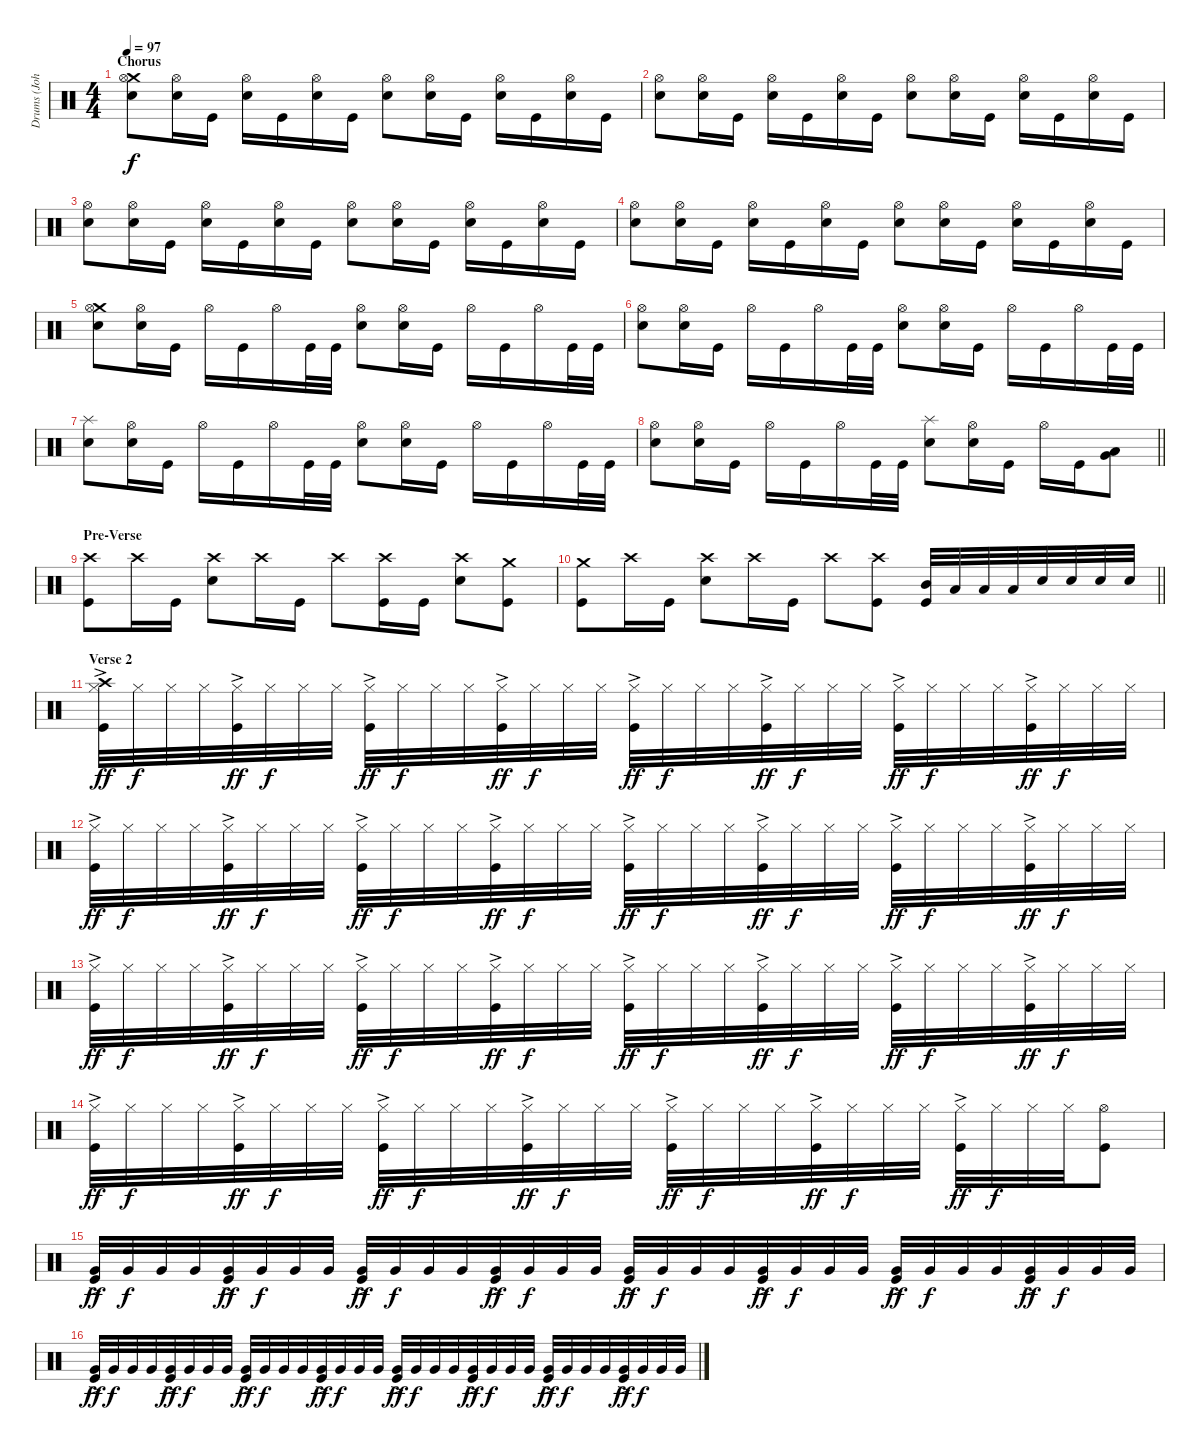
\track ("Drums (John Ensminger)" "Drums (Joh") {instrument percussion}
\staff {score}
\articulation defaults
\ts (4 4)
\section ("" "Chorus")
\tempo 97
\clef neutral
\ks c
("Crash medium (hit)" "Hi-Hat (open)" "Electric Snare (hit)").8{dy f} ("Hi-Hat (open)" "Electric Snare (hit)").16 "Kick (hit)".16 ("Hi-Hat (open)" "Electric Snare (hit)").16 "Kick (hit)".16 ("Hi-Hat (open)" "Electric Snare (hit)").16 "Kick (hit)".16 ("Hi-Hat (open)" "Electric Snare (hit)").8 ("Hi-Hat (open)" "Electric Snare (hit)").16 "Kick (hit)".16 ("Hi-Hat (open)" "Electric Snare (hit)").16 "Kick (hit)".16 ("Hi-Hat (open)" "Electric Snare (hit)").16 "Kick (hit)".16 |
("Hi-Hat (open)" "Electric Snare (hit)").8 ("Hi-Hat (open)" "Electric Snare (hit)").16 "Kick (hit)".16 ("Hi-Hat (open)" "Electric Snare (hit)").16 "Kick (hit)".16 ("Hi-Hat (open)" "Electric Snare (hit)").16 "Kick (hit)".16 ("Hi-Hat (open)" "Electric Snare (hit)").8 ("Hi-Hat (open)" "Electric Snare (hit)").16 "Kick (hit)".16 ("Hi-Hat (open)" "Electric Snare (hit)").16 "Kick (hit)".16 ("Hi-Hat (open)" "Electric Snare (hit)").16 "Kick (hit)".16 |
("Hi-Hat (open)" "Electric Snare (hit)").8 ("Hi-Hat (open)" "Electric Snare (hit)").16 "Kick (hit)".16 ("Hi-Hat (open)" "Electric Snare (hit)").16 "Kick (hit)".16 ("Hi-Hat (open)" "Electric Snare (hit)").16 "Kick (hit)".16 ("Hi-Hat (open)" "Electric Snare (hit)").8 ("Hi-Hat (open)" "Electric Snare (hit)").16 "Kick (hit)".16 ("Hi-Hat (open)" "Electric Snare (hit)").16 "Kick (hit)".16 ("Hi-Hat (open)" "Electric Snare (hit)").16 "Kick (hit)".16 |
("Hi-Hat (open)" "Electric Snare (hit)").8 ("Hi-Hat (open)" "Electric Snare (hit)").16 "Kick (hit)".16 ("Hi-Hat (open)" "Electric Snare (hit)").16 "Kick (hit)".16 ("Hi-Hat (open)" "Electric Snare (hit)").16 "Kick (hit)".16 ("Hi-Hat (open)" "Electric Snare (hit)").8 ("Hi-Hat (open)" "Electric Snare (hit)").16 "Kick (hit)".16 ("Hi-Hat (open)" "Electric Snare (hit)").16 "Kick (hit)".16 ("Hi-Hat (open)" "Electric Snare (hit)").16 "Kick (hit)".16 |
("Crash medium (hit)" "Hi-Hat (open)" "Electric Snare (hit)").8 ("Hi-Hat (open)" "Electric Snare (hit)").16 "Kick (hit)".16 "Hi-Hat (open)".16 "Kick (hit)".16 "Hi-Hat (open)".16 "Kick (hit)".32 "Kick (hit)".32 ("Hi-Hat (open)" "Electric Snare (hit)").8 ("Hi-Hat (open)" "Electric Snare (hit)").16 "Kick (hit)".16 "Hi-Hat (open)".16 "Kick (hit)".16 "Hi-Hat (open)".16 "Kick (hit)".32 "Kick (hit)".32 |
("Hi-Hat (open)" "Electric Snare (hit)").8 ("Hi-Hat (open)" "Electric Snare (hit)").16 "Kick (hit)".16 "Hi-Hat (open)".16 "Kick (hit)".16 "Hi-Hat (open)".16 "Kick (hit)".32 "Kick (hit)".32 ("Hi-Hat (open)" "Electric Snare (hit)").8 ("Hi-Hat (open)" "Electric Snare (hit)").16 "Kick (hit)".16 "Hi-Hat (open)".16 "Kick (hit)".16 "Hi-Hat (open)".16 "Kick (hit)".32 "Kick (hit)".32 |
("Splash (hit)" "Electric Snare (hit)").8 ("Hi-Hat (open)" "Electric Snare (hit)").16 "Kick (hit)".16 "Hi-Hat (open)".16 "Kick (hit)".16 "Hi-Hat (open)".16 "Kick (hit)".32 "Kick (hit)".32 ("Hi-Hat (open)" "Electric Snare (hit)").8 ("Hi-Hat (open)" "Electric Snare (hit)").16 "Kick (hit)".16 "Hi-Hat (open)".16 "Kick (hit)".16 "Hi-Hat (open)".16 "Kick (hit)".32 "Kick (hit)".32 |
\barLineRight lightlight
("Hi-Hat (open)" "Electric Snare (hit)").8 ("Hi-Hat (open)" "Electric Snare (hit)").16 "Kick (hit)".16 "Hi-Hat (open)".16 "Kick (hit)".16 "Hi-Hat (open)".16 "Kick (hit)".32 "Kick (hit)".32 ("Splash (hit)" "Electric Snare (hit)").8 ("Hi-Hat (open)" "Electric Snare (hit)").16 "Kick (hit)".16 "Hi-Hat (open)".16 "Kick (hit)".16 ("Low Tom (hit)" "Very Low Tom (hit)").8{bd 120} |
\section ("" "Pre-Verse")
("Crash high (hit)" "Kick (hit)").8 "Crash high (hit)".16 "Kick (hit)".16 ("Crash high (hit)" "Electric Snare (hit)").8 "Crash high (hit)".16 "Kick (hit)".16 "Crash high (hit)".8 ("Crash high (hit)" "Kick (hit)").16 "Kick (hit)".16 ("Crash high (hit)" "Electric Snare (hit)").8 ("Crash medium (hit)" "Kick (hit)").8 |
\barLineRight lightlight
("Crash medium (hit)" "Kick (hit)").8 "Crash high (hit)".16 "Kick (hit)".16 ("Crash high (hit)" "Electric Snare (hit)").8 "Crash high (hit)".16 "Kick (hit)".16 "Crash high (hit)".8 ("Crash high (hit)" "Kick (hit)").8 ("Mid Tom (hit)" "Kick (hit)").32 "Low Tom (hit)".32 "Low Tom (hit)".32 "Low Tom (hit)".32 "Electric Snare (hit)".32 "Electric Snare (hit)".32 "Electric Snare (hit)".32 "Electric Snare (hit)".32 |
\section ("" "Verse 2")
("Crash high (hit)" "Hi-Hat (closed)"{ac} "Kick (hit)").32{dy ff} "Hi-Hat (closed)".32{dy f} "Hi-Hat (closed)".32 "Hi-Hat (closed)".32 ("Hi-Hat (closed)"{ac} "Kick (hit)").32{dy ff} "Hi-Hat (closed)".32{dy f} "Hi-Hat (closed)".32 "Hi-Hat (closed)".32 ("Hi-Hat (closed)"{ac} "Kick (hit)").32{dy ff} "Hi-Hat (closed)".32{dy f} "Hi-Hat (closed)".32 "Hi-Hat (closed)".32 ("Hi-Hat (closed)"{ac} "Kick (hit)").32{dy ff} "Hi-Hat (closed)".32{dy f} "Hi-Hat (closed)".32 "Hi-Hat (closed)".32 ("Hi-Hat (closed)"{ac} "Kick (hit)").32{dy ff} "Hi-Hat (closed)".32{dy f} "Hi-Hat (closed)".32 "Hi-Hat (closed)".32 ("Hi-Hat (closed)"{ac} "Kick (hit)").32{dy ff} "Hi-Hat (closed)".32{dy f} "Hi-Hat (closed)".32 "Hi-Hat (closed)".32 ("Hi-Hat (closed)"{ac} "Kick (hit)").32{dy ff} "Hi-Hat (closed)".32{dy f} "Hi-Hat (closed)".32 "Hi-Hat (closed)".32 ("Hi-Hat (closed)"{ac} "Kick (hit)").32{dy ff} "Hi-Hat (closed)".32{dy f} "Hi-Hat (closed)".32 "Hi-Hat (closed)".32 |
("Hi-Hat (closed)"{ac} "Kick (hit)").32{dy ff} "Hi-Hat (closed)".32{dy f} "Hi-Hat (closed)".32 "Hi-Hat (closed)".32 ("Hi-Hat (closed)"{ac} "Kick (hit)").32{dy ff} "Hi-Hat (closed)".32{dy f} "Hi-Hat (closed)".32 "Hi-Hat (closed)".32 ("Hi-Hat (closed)"{ac} "Kick (hit)").32{dy ff} "Hi-Hat (closed)".32{dy f} "Hi-Hat (closed)".32 "Hi-Hat (closed)".32 ("Hi-Hat (closed)"{ac} "Kick (hit)").32{dy ff} "Hi-Hat (closed)".32{dy f} "Hi-Hat (closed)".32 "Hi-Hat (closed)".32 ("Hi-Hat (closed)"{ac} "Kick (hit)").32{dy ff} "Hi-Hat (closed)".32{dy f} "Hi-Hat (closed)".32 "Hi-Hat (closed)".32 ("Hi-Hat (closed)"{ac} "Kick (hit)").32{dy ff} "Hi-Hat (closed)".32{dy f} "Hi-Hat (closed)".32 "Hi-Hat (closed)".32 ("Hi-Hat (closed)"{ac} "Kick (hit)").32{dy ff} "Hi-Hat (closed)".32{dy f} "Hi-Hat (closed)".32 "Hi-Hat (closed)".32 ("Hi-Hat (closed)"{ac} "Kick (hit)").32{dy ff} "Hi-Hat (closed)".32{dy f} "Hi-Hat (closed)".32 "Hi-Hat (closed)".32 |
("Hi-Hat (closed)"{ac} "Kick (hit)").32{dy ff} "Hi-Hat (closed)".32{dy f} "Hi-Hat (closed)".32 "Hi-Hat (closed)".32 ("Hi-Hat (closed)"{ac} "Kick (hit)").32{dy ff} "Hi-Hat (closed)".32{dy f} "Hi-Hat (closed)".32 "Hi-Hat (closed)".32 ("Hi-Hat (closed)"{ac} "Kick (hit)").32{dy ff} "Hi-Hat (closed)".32{dy f} "Hi-Hat (closed)".32 "Hi-Hat (closed)".32 ("Hi-Hat (closed)"{ac} "Kick (hit)").32{dy ff} "Hi-Hat (closed)".32{dy f} "Hi-Hat (closed)".32 "Hi-Hat (closed)".32 ("Hi-Hat (closed)"{ac} "Kick (hit)").32{dy ff} "Hi-Hat (closed)".32{dy f} "Hi-Hat (closed)".32 "Hi-Hat (closed)".32 ("Hi-Hat (closed)"{ac} "Kick (hit)").32{dy ff} "Hi-Hat (closed)".32{dy f} "Hi-Hat (closed)".32 "Hi-Hat (closed)".32 ("Hi-Hat (closed)"{ac} "Kick (hit)").32{dy ff} "Hi-Hat (closed)".32{dy f} "Hi-Hat (closed)".32 "Hi-Hat (closed)".32 ("Hi-Hat (closed)"{ac} "Kick (hit)").32{dy ff} "Hi-Hat (closed)".32{dy f} "Hi-Hat (closed)".32 "Hi-Hat (closed)".32 |
("Hi-Hat (closed)"{ac} "Kick (hit)").32{dy ff} "Hi-Hat (closed)".32{dy f} "Hi-Hat (closed)".32 "Hi-Hat (closed)".32 ("Hi-Hat (closed)"{ac} "Kick (hit)").32{dy ff} "Hi-Hat (closed)".32{dy f} "Hi-Hat (closed)".32 "Hi-Hat (closed)".32 ("Hi-Hat (closed)"{ac} "Kick (hit)").32{dy ff} "Hi-Hat (closed)".32{dy f} "Hi-Hat (closed)".32 "Hi-Hat (closed)".32 ("Hi-Hat (closed)"{ac} "Kick (hit)").32{dy ff} "Hi-Hat (closed)".32{dy f} "Hi-Hat (closed)".32 "Hi-Hat (closed)".32 ("Hi-Hat (closed)"{ac} "Kick (hit)").32{dy ff} "Hi-Hat (closed)".32{dy f} "Hi-Hat (closed)".32 "Hi-Hat (closed)".32 ("Hi-Hat (closed)"{ac} "Kick (hit)").32{dy ff} "Hi-Hat (closed)".32{dy f} "Hi-Hat (closed)".32 "Hi-Hat (closed)".32 ("Hi-Hat (closed)"{ac} "Kick (hit)").32{dy ff} "Hi-Hat (closed)".32{dy f} "Hi-Hat (closed)".32 "Hi-Hat (closed)".32 ("Hi-Hat (open)" "Kick (hit)").8 |
("Very Low Tom (hit)"{ac} "Kick (hit)").32{dy ff} "Very Low Tom (hit)".32{dy f} "Very Low Tom (hit)".32 "Very Low Tom (hit)".32 ("Very Low Tom (hit)"{ac} "Kick (hit)").32{dy ff} "Very Low Tom (hit)".32{dy f} "Very Low Tom (hit)".32 "Very Low Tom (hit)".32 ("Very Low Tom (hit)"{ac} "Kick (hit)").32{dy ff} "Very Low Tom (hit)".32{dy f} "Very Low Tom (hit)".32 "Very Low Tom (hit)".32 ("Very Low Tom (hit)"{ac} "Kick (hit)").32{dy ff} "Very Low Tom (hit)".32{dy f} "Very Low Tom (hit)".32 "Very Low Tom (hit)".32 ("Very Low Tom (hit)"{ac} "Kick (hit)").32{dy ff} "Very Low Tom (hit)".32{dy f} "Very Low Tom (hit)".32 "Very Low Tom (hit)".32 ("Very Low Tom (hit)"{ac} "Kick (hit)").32{dy ff} "Very Low Tom (hit)".32{dy f} "Very Low Tom (hit)".32 "Very Low Tom (hit)".32 ("Very Low Tom (hit)"{ac} "Kick (hit)").32{dy ff} "Very Low Tom (hit)".32{dy f} "Very Low Tom (hit)".32 "Very Low Tom (hit)".32 ("Very Low Tom (hit)"{ac} "Kick (hit)").32{dy ff} "Very Low Tom (hit)".32{dy f} "Very Low Tom (hit)".32 "Very Low Tom (hit)".32 |
("Very Low Tom (hit)"{ac} "Kick (hit)").32{dy ff} "Very Low Tom (hit)".32{dy f} "Very Low Tom (hit)".32 "Very Low Tom (hit)".32 ("Very Low Tom (hit)"{ac} "Kick (hit)").32{dy ff} "Very Low Tom (hit)".32{dy f} "Very Low Tom (hit)".32 "Very Low Tom (hit)".32 ("Very Low Tom (hit)"{ac} "Kick (hit)").32{dy ff} "Very Low Tom (hit)".32{dy f} "Very Low Tom (hit)".32 "Very Low Tom (hit)".32 ("Very Low Tom (hit)"{ac} "Kick (hit)").32{dy ff} "Very Low Tom (hit)".32{dy f} "Very Low Tom (hit)".32 "Very Low Tom (hit)".32 ("Very Low Tom (hit)"{ac} "Kick (hit)").32{dy ff} "Very Low Tom (hit)".32{dy f} "Very Low Tom (hit)".32 "Very Low Tom (hit)".32 ("Very Low Tom (hit)"{ac} "Kick (hit)").32{dy ff} "Very Low Tom (hit)".32{dy f} "Very Low Tom (hit)".32 "Very Low Tom (hit)".32 ("Very Low Tom (hit)"{ac} "Kick (hit)").32{dy ff} "Very Low Tom (hit)".32{dy f} "Very Low Tom (hit)".32 "Very Low Tom (hit)".32 ("Very Low Tom (hit)"{ac} "Kick (hit)").32{dy ff} "Very Low Tom (hit)".32{dy f} "Very Low Tom (hit)".32 "Very Low Tom (hit)".32
